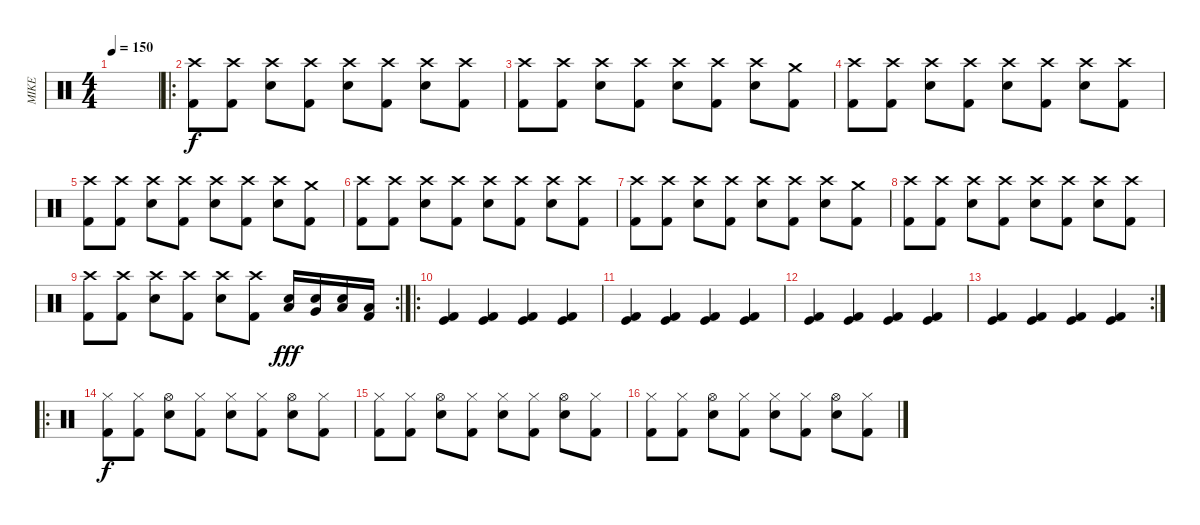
\track ("MIKE" "MIKE") {instrument percussion}
\staff {score}
\articulation defaults
\ts (4 4)
\tempo 150
\clef neutral
\ks c
|
\ro
("Crash high (hit)" "Kick (hit) 2").8 ("Crash high (hit)" "Kick (hit) 2").8 ("Crash high (hit)" "Snare (hit) 2").8 ("Crash high (hit)" "Kick (hit) 2").8 ("Crash high (hit)" "Snare (hit) 2").8 ("Crash high (hit)" "Kick (hit) 2").8 ("Crash high (hit)" "Snare (hit) 2").8 ("Crash high (hit)" "Kick (hit) 2").8 |
("Crash high (hit)" "Kick (hit) 2").8 ("Crash high (hit)" "Kick (hit) 2").8 ("Crash high (hit)" "Snare (hit) 2").8 ("Crash high (hit)" "Kick (hit) 2").8 ("Crash high (hit)" "Snare (hit) 2").8 ("Crash high (hit)" "Kick (hit) 2").8 ("Crash high (hit)" "Snare (hit) 2").8 ("Crash medium (hit)" "Kick (hit) 2").8 |
("Crash high (hit)" "Kick (hit) 2").8 ("Crash high (hit)" "Kick (hit) 2").8 ("Crash high (hit)" "Snare (hit) 2").8 ("Crash high (hit)" "Kick (hit) 2").8 ("Crash high (hit)" "Snare (hit) 2").8 ("Crash high (hit)" "Kick (hit) 2").8 ("Crash high (hit)" "Snare (hit) 2").8 ("Crash high (hit)" "Kick (hit) 2").8 |
("Crash high (hit)" "Kick (hit) 2").8 ("Crash high (hit)" "Kick (hit) 2").8 ("Crash high (hit)" "Snare (hit) 2").8 ("Crash high (hit)" "Kick (hit) 2").8 ("Crash high (hit)" "Snare (hit) 2").8 ("Crash high (hit)" "Kick (hit) 2").8 ("Crash high (hit)" "Snare (hit) 2").8 ("Crash medium (hit)" "Kick (hit) 2").8 |
("Crash high (hit)" "Kick (hit) 2").8 ("Crash high (hit)" "Kick (hit) 2").8 ("Crash high (hit)" "Snare (hit) 2").8 ("Crash high (hit)" "Kick (hit) 2").8 ("Crash high (hit)" "Snare (hit) 2").8 ("Crash high (hit)" "Kick (hit) 2").8 ("Crash high (hit)" "Snare (hit) 2").8 ("Crash high (hit)" "Kick (hit) 2").8 |
("Crash high (hit)" "Kick (hit) 2").8 ("Crash high (hit)" "Kick (hit) 2").8 ("Crash high (hit)" "Snare (hit) 2").8 ("Crash high (hit)" "Kick (hit) 2").8 ("Crash high (hit)" "Snare (hit) 2").8 ("Crash high (hit)" "Kick (hit) 2").8 ("Crash high (hit)" "Snare (hit) 2").8 ("Crash medium (hit)" "Kick (hit) 2").8 |
("Crash high (hit)" "Kick (hit) 2").8 ("Crash high (hit)" "Kick (hit) 2").8 ("Crash high (hit)" "Snare (hit) 2").8 ("Crash high (hit)" "Kick (hit) 2").8 ("Crash high (hit)" "Snare (hit) 2").8 ("Crash high (hit)" "Kick (hit) 2").8 ("Crash high (hit)" "Snare (hit) 2").8 ("Crash high (hit)" "Kick (hit) 2").8 |
\rc 2
("Crash high (hit)" "Kick (hit) 2").8 ("Crash high (hit)" "Kick (hit) 2").8 ("Crash high (hit)" "Snare (hit) 2").8 ("Crash high (hit)" "Kick (hit) 2").8 ("Crash high (hit)" "Snare (hit) 2").8 ("Crash high (hit)" "Kick (hit) 2").8 ("Low Tom (hit)" "Snare (hit) 2").16{dy fff} ("Very Low Tom (hit)" "Snare (hit) 2").16 ("Low Floor Tom (hit)" "Snare (hit) 2").16 ("Low Floor Tom (hit)" "Kick (hit) 2").16 |
\ro
("Kick (hit)" "Kick (hit) 2").4 ("Kick (hit)" "Kick (hit) 2").4 ("Kick (hit)" "Kick (hit) 2").4 ("Kick (hit)" "Kick (hit) 2").4 |
("Kick (hit)" "Kick (hit) 2").4 ("Kick (hit)" "Kick (hit) 2").4 ("Kick (hit)" "Kick (hit) 2").4 ("Kick (hit)" "Kick (hit) 2").4 |
("Kick (hit)" "Kick (hit) 2").4 ("Kick (hit)" "Kick (hit) 2").4 ("Kick (hit)" "Kick (hit) 2").4 ("Kick (hit)" "Kick (hit) 2").4 |
\rc 2
("Kick (hit)" "Kick (hit) 2").4 ("Kick (hit)" "Kick (hit) 2").4 ("Kick (hit)" "Kick (hit) 2").4 ("Kick (hit)" "Kick (hit) 2").4 |
\ro
("Hi-Hat (closed)" "Kick (hit) 2").8{dy f} ("Hi-Hat (closed)" "Kick (hit) 2").8 ("Hi-Hat (open)" "Snare (hit) 2").8 ("Hi-Hat (closed)" "Kick (hit) 2").8 ("Hi-Hat (closed)" "Snare (hit) 2").8 ("Hi-Hat (closed)" "Kick (hit) 2").8 ("Hi-Hat (open)" "Snare (hit) 2").8 ("Hi-Hat (closed)" "Kick (hit) 2").8 |
("Hi-Hat (closed)" "Kick (hit) 2").8 ("Hi-Hat (closed)" "Kick (hit) 2").8 ("Hi-Hat (open)" "Snare (hit) 2").8 ("Hi-Hat (closed)" "Kick (hit) 2").8 ("Hi-Hat (closed)" "Snare (hit) 2").8 ("Hi-Hat (closed)" "Kick (hit) 2").8 ("Hi-Hat (open)" "Snare (hit) 2").8 ("Hi-Hat (closed)" "Kick (hit) 2").8 |
("Hi-Hat (closed)" "Kick (hit) 2").8 ("Hi-Hat (closed)" "Kick (hit) 2").8 ("Hi-Hat (open)" "Snare (hit) 2").8 ("Hi-Hat (closed)" "Kick (hit) 2").8 ("Hi-Hat (closed)" "Snare (hit) 2").8 ("Hi-Hat (closed)" "Kick (hit) 2").8 ("Hi-Hat (open)" "Snare (hit) 2").8 ("Hi-Hat (closed)" "Kick (hit) 2").8
